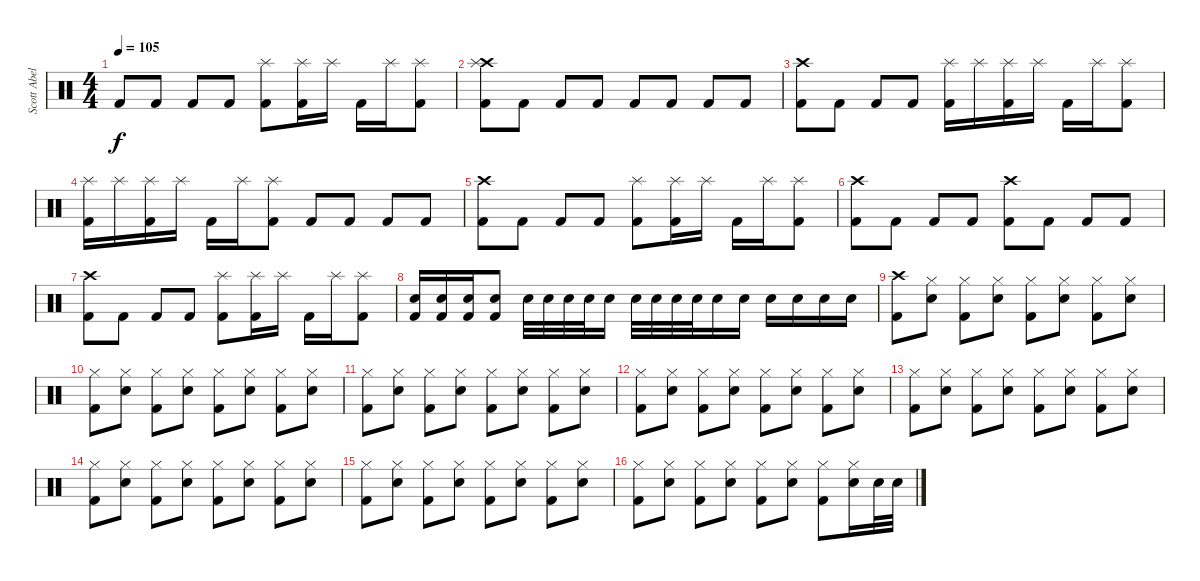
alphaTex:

\track ("Scott Abels - Drums" "Scott Abel") {instrument percussion}
\staff {score}
\articulation defaults
\ts (4 4)
\tempo 105
\clef neutral
\ks c "Kick (hit) 2".8{dy f} "Kick (hit) 2".8 "Kick (hit) 2".8 "Kick (hit) 2".8
("Splash (hit)" "Kick (hit) 2").8 ("Splash (hit)" "Kick (hit) 2").16 "Splash (hit)".16 "Kick (hit) 2".16 "Splash (hit)".16 ("Splash (hit)" "Kick (hit) 2").8 |
("Crash high (hit)" "Splash (hit)" "Kick (hit) 2").8 "Kick (hit) 2".8 "Kick (hit) 2".8 "Kick (hit) 2".8 "Kick (hit) 2".8 "Kick (hit) 2".8 "Kick (hit) 2".8 "Kick (hit) 2".8 |
("Crash high (hit)" "Kick (hit) 2").8 "Kick (hit) 2".8 "Kick (hit) 2".8 "Kick (hit) 2".8 ("Splash (hit)" "Kick (hit) 2").16 "Splash (hit)".16 ("Splash (hit)" "Kick (hit) 2").16 "Splash (hit)".16 "Kick (hit) 2".16 "Splash (hit)".16 ("Splash (hit)" "Kick (hit) 2").8 |
("Splash (hit)" "Kick (hit) 2").16 "Splash (hit)".16 ("Splash (hit)" "Kick (hit) 2").16 "Splash (hit)".16 "Kick (hit) 2".16 "Splash (hit)".16 ("Splash (hit)" "Kick (hit) 2").8 "Kick (hit) 2".8 "Kick (hit) 2".8 "Kick (hit) 2".8 "Kick (hit) 2".8 |
("Crash high (hit)" "Kick (hit) 2").8 "Kick (hit) 2".8 "Kick (hit) 2".8 "Kick (hit) 2".8 ("Splash (hit)" "Kick (hit) 2").8 ("Splash (hit)" "Kick (hit) 2").16 "Splash (hit)".16 "Kick (hit) 2".16 "Splash (hit)".16 ("Splash (hit)" "Kick (hit) 2").8 |
("Crash high (hit)" "Kick (hit) 2").8 "Kick (hit) 2".8 "Kick (hit) 2".8 "Kick (hit) 2".8 ("Crash high (hit)" "Kick (hit) 2").8 "Kick (hit) 2".8 "Kick (hit) 2".8 "Kick (hit) 2".8 |
("Crash high (hit)" "Kick (hit) 2").8 "Kick (hit) 2".8 "Kick (hit) 2".8 "Kick (hit) 2".8 ("Splash (hit)" "Kick (hit) 2").8 ("Splash (hit)" "Kick (hit) 2").16 "Splash (hit)".16 "Kick (hit) 2".16 "Splash (hit)".16 ("Splash (hit)" "Kick (hit) 2").8 |
("Electric Snare (hit)" "Kick (hit) 2").16 ("Electric Snare (hit)" "Kick (hit) 2").16 ("Electric Snare (hit)" "Kick (hit) 2").16 ("Electric Snare (hit)" "Kick (hit) 2").8 "Electric Snare (hit)".32 "Electric Snare (hit)".32 "Electric Snare (hit)".32 "Electric Snare (hit)".32 "Electric Snare (hit)".16 "Electric Snare (hit)".32 "Electric Snare (hit)".32 "Electric Snare (hit)".32 "Electric Snare (hit)".32 "Electric Snare (hit)".16 "Electric Snare (hit)".16 "Electric Snare (hit)".16 "Electric Snare (hit)".16 "Electric Snare (hit)".16 "Electric Snare (hit)".16 |
("Crash high (hit)" "Kick (hit) 2").8 ("Hi-Hat (closed)" "Electric Snare (hit)").8 ("Hi-Hat (closed)" "Kick (hit) 2").8 ("Hi-Hat (closed)" "Electric Snare (hit)").8 ("Hi-Hat (closed)" "Kick (hit) 2").8 ("Hi-Hat (closed)" "Electric Snare (hit)").8 ("Hi-Hat (closed)" "Kick (hit) 2").8 ("Hi-Hat (closed)" "Electric Snare (hit)").8 |
("Hi-Hat (closed)" "Kick (hit) 2").8 ("Hi-Hat (closed)" "Electric Snare (hit)").8 ("Hi-Hat (closed)" "Kick (hit) 2").8 ("Hi-Hat (closed)" "Electric Snare (hit)").8 ("Hi-Hat (closed)" "Kick (hit) 2").8 ("Hi-Hat (closed)" "Electric Snare (hit)").8 ("Hi-Hat (closed)" "Kick (hit) 2").8 ("Hi-Hat (closed)" "Electric Snare (hit)").8 |
("Hi-Hat (closed)" "Kick (hit) 2").8 ("Hi-Hat (closed)" "Electric Snare (hit)").8 ("Hi-Hat (closed)" "Kick (hit) 2").8 ("Hi-Hat (closed)" "Electric Snare (hit)").8 ("Hi-Hat (closed)" "Kick (hit) 2").8 ("Hi-Hat (closed)" "Electric Snare (hit)").8 ("Hi-Hat (closed)" "Kick (hit) 2").8 ("Hi-Hat (closed)" "Electric Snare (hit)").8 |
("Hi-Hat (closed)" "Kick (hit) 2").8 ("Hi-Hat (closed)" "Electric Snare (hit)").8 ("Hi-Hat (closed)" "Kick (hit) 2").8 ("Hi-Hat (closed)" "Electric Snare (hit)").8 ("Hi-Hat (closed)" "Kick (hit) 2").8 ("Hi-Hat (closed)" "Electric Snare (hit)").8 ("Hi-Hat (closed)" "Kick (hit) 2").8 ("Hi-Hat (closed)" "Electric Snare (hit)").8 |
("Hi-Hat (closed)" "Kick (hit) 2").8 ("Hi-Hat (closed)" "Electric Snare (hit)").8 ("Hi-Hat (closed)" "Kick (hit) 2").8 ("Hi-Hat (closed)" "Electric Snare (hit)").8 ("Hi-Hat (closed)" "Kick (hit) 2").8 ("Hi-Hat (closed)" "Electric Snare (hit)").8 ("Hi-Hat (closed)" "Kick (hit) 2").8 ("Hi-Hat (closed)" "Electric Snare (hit)").8 |
("Hi-Hat (closed)" "Kick (hit) 2").8 ("Hi-Hat (closed)" "Electric Snare (hit)").8 ("Hi-Hat (closed)" "Kick (hit) 2").8 ("Hi-Hat (closed)" "Electric Snare (hit)").8 ("Hi-Hat (closed)" "Kick (hit) 2").8 ("Hi-Hat (closed)" "Electric Snare (hit)").8 ("Hi-Hat (closed)" "Kick (hit) 2").8 ("Hi-Hat (closed)" "Electric Snare (hit)").8 |
("Hi-Hat (closed)" "Kick (hit) 2").8 ("Hi-Hat (closed)" "Electric Snare (hit)").8 ("Hi-Hat (closed)" "Kick (hit) 2").8 ("Hi-Hat (closed)" "Electric Snare (hit)").8 ("Hi-Hat (closed)" "Kick (hit) 2").8 ("Hi-Hat (closed)" "Electric Snare (hit)").8 ("Hi-Hat (closed)" "Kick (hit) 2").8 ("Hi-Hat (closed)" "Electric Snare (hit)").8 |
("Hi-Hat (closed)" "Kick (hit) 2").8 ("Hi-Hat (closed)" "Electric Snare (hit)").8 ("Hi-Hat (closed)" "Kick (hit) 2").8 ("Hi-Hat (closed)" "Electric Snare (hit)").8 ("Hi-Hat (closed)" "Kick (hit) 2").8 ("Hi-Hat (closed)" "Electric Snare (hit)").8 ("Hi-Hat (closed)" "Kick (hit) 2").8 ("Hi-Hat (closed)" "Electric Snare (hit)").16 "Electric Snare (hit)".32 "Electric Snare (hit)".32
